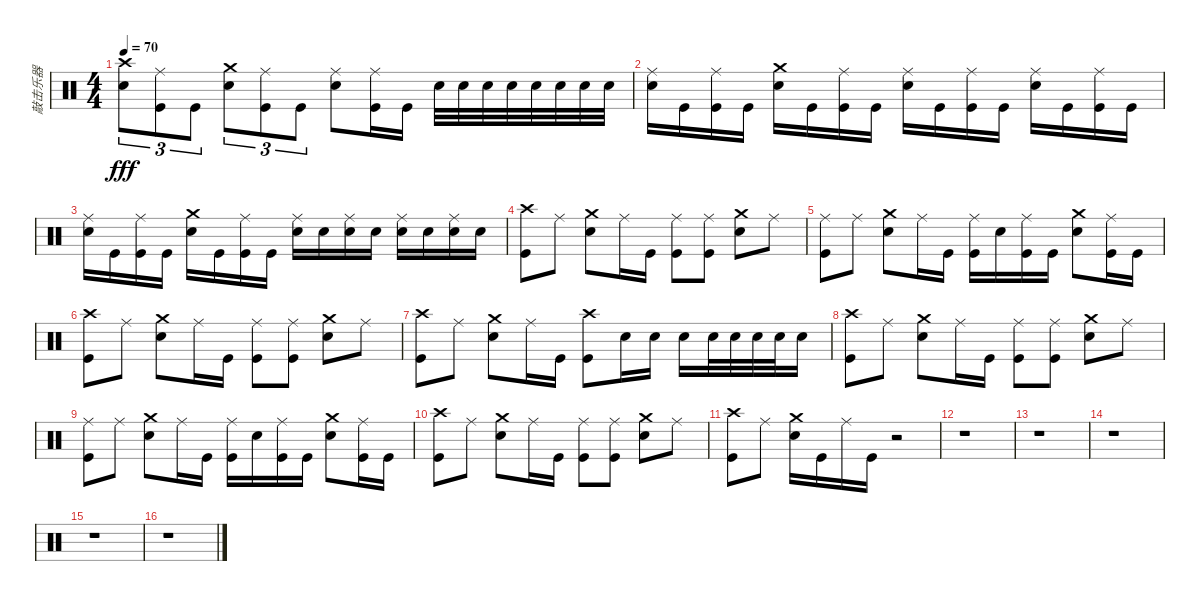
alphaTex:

\track ("敲击乐器" "敲击乐器") {instrument percussion}
\staff {score}
\articulation defaults
\ts (4 4)
\tempo 70
\clef neutral
\ks c
("Crash high (hit)" "Snare (hit) 2").8{tu (3 2) dy fff} ("Ride (middle)" "Kick (hit)").8{tu (3 2)} "Kick (hit)".8{tu (3 2)} ("Crash medium (hit)" "Snare (hit) 2").8{tu (3 2)} ("Ride (middle)" "Kick (hit)").8{tu (3 2)} "Kick (hit)".8{tu (3 2)} ("Ride (middle)" "Snare (hit) 2").8 ("Ride (middle)" "Kick (hit)").16 "Kick (hit)".16 "Snare (hit) 2".32 "Snare (hit) 2".32 "Snare (hit) 2".32 "Snare (hit) 2".32 "Snare (hit) 2".32 "Snare (hit) 2".32 "Snare (hit) 2".32 "Snare (hit) 2".32 |
("Ride (middle)" "Snare (hit) 2").16 "Kick (hit)".16 ("Ride (middle)" "Kick (hit)").16 "Kick (hit)".16 ("Crash medium (hit)" "Snare (hit) 2").16 "Kick (hit)".16 ("Ride (middle)" "Kick (hit)").16 "Kick (hit)".16 ("Ride (middle)" "Snare (hit) 2").16 "Kick (hit)".16 ("Ride (middle)" "Kick (hit)").16 "Kick (hit)".16 ("Ride (middle)" "Snare (hit) 2").16 "Kick (hit)".16 ("Ride (middle)" "Kick (hit)").16 "Kick (hit)".16 |
("Ride (middle)" "Snare (hit) 2").16 "Kick (hit)".16 ("Ride (middle)" "Kick (hit)").16 "Kick (hit)".16 ("Crash medium (hit)" "Snare (hit) 2").16 "Kick (hit)".16 ("Ride (middle)" "Kick (hit)").16 "Kick (hit)".16 ("Ride (middle)" "Snare (hit) 2").16 "Snare (hit) 2".16 ("Ride (middle)" "Snare (hit) 2").16 "Snare (hit) 2".16 ("Ride (middle)" "Snare (hit) 2").16 "Snare (hit) 2".16 ("Ride (middle)" "Snare (hit) 2").16 "Snare (hit) 2".16 |
("Crash high (hit)" "Kick (hit)").8 "Ride (middle)".8 ("Crash medium (hit)" "Snare (hit) 2").8 "Ride (middle)".16 "Kick (hit)".16 ("Ride (middle)" "Kick (hit)").8 ("Ride (middle)" "Kick (hit)").8 ("Crash medium (hit)" "Snare (hit) 2").8 "Ride (middle)".8 |
("Ride (middle)" "Kick (hit)").8 "Ride (middle)".8 ("Crash medium (hit)" "Snare (hit) 2").8 "Ride (middle)".16 "Kick (hit)".16 ("Ride (middle)" "Kick (hit)").16 "Snare (hit) 2".16 ("Ride (middle)" "Kick (hit)").16 "Kick (hit)".16 ("Crash medium (hit)" "Snare (hit) 2").8 ("Ride (middle)" "Kick (hit)").16 "Kick (hit)".16 |
("Crash high (hit)" "Kick (hit)").8 "Ride (middle)".8 ("Crash medium (hit)" "Snare (hit) 2").8 "Ride (middle)".16 "Kick (hit)".16 ("Ride (middle)" "Kick (hit)").8 ("Ride (middle)" "Kick (hit)").8 ("Crash medium (hit)" "Snare (hit) 2").8 "Ride (middle)".8 |
("Crash high (hit)" "Kick (hit)").8 "Ride (middle)".8 ("Crash medium (hit)" "Snare (hit) 2").8 "Ride (middle)".16 "Kick (hit)".16 ("Crash high (hit)" "Kick (hit)").8 "Snare (hit) 2".16 "Snare (hit) 2".16 "Snare (hit) 2".16 "Snare (hit) 2".32 "Snare (hit) 2".32 "Snare (hit) 2".32 "Snare (hit) 2".32 "Snare (hit) 2".16 |
("Crash high (hit)" "Kick (hit)").8 "Ride (middle)".8 ("Crash medium (hit)" "Snare (hit) 2").8 "Ride (middle)".16 "Kick (hit)".16 ("Ride (middle)" "Kick (hit)").8 ("Ride (middle)" "Kick (hit)").8 ("Crash medium (hit)" "Snare (hit) 2").8 "Ride (middle)".8 |
("Ride (middle)" "Kick (hit)").8 "Ride (middle)".8 ("Crash medium (hit)" "Snare (hit) 2").8 "Ride (middle)".16 "Kick (hit)".16 ("Ride (middle)" "Kick (hit)").16 "Snare (hit) 2".16 ("Ride (middle)" "Kick (hit)").16 "Kick (hit)".16 ("Crash medium (hit)" "Snare (hit) 2").8 ("Ride (middle)" "Kick (hit)").16 "Kick (hit)".16 |
("Crash high (hit)" "Kick (hit)").8 "Ride (middle)".8 ("Crash medium (hit)" "Snare (hit) 2").8 "Ride (middle)".16 "Kick (hit)".16 ("Ride (middle)" "Kick (hit)").8 ("Ride (middle)" "Kick (hit)").8 ("Crash medium (hit)" "Snare (hit) 2").8 "Ride (middle)".8 |
("Crash high (hit)" "Kick (hit)").8 "Ride (middle)".8 ("Crash medium (hit)" "Snare (hit) 2").16 "Kick (hit)".16 "Ride (middle)".16 "Kick (hit)".16 r.2 |
r.1 |
r.1 |
r.1 |
r.1 |
r.1
